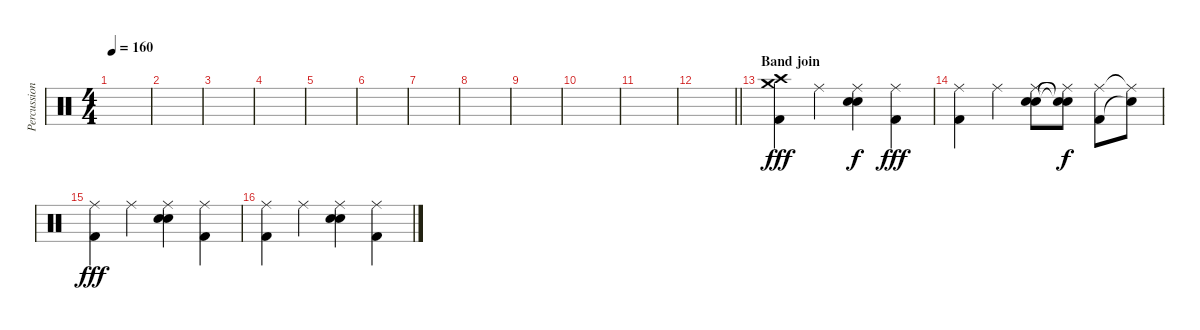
\track ("Percussion" "Percussion") {instrument percussion}
\staff {score}
\articulation defaults
\ts (4 4)
\tempo 160
\clef neutral
\ks c
|
|
|
|
|
|
|
|
|
|
|
\barLineRight lightlight
|
\section ("" "Band join")
("Crash high (hit)" "Kick (hit) 2" "Crash medium (hit)").4{dy fff} "Ride (middle)".4 ("Ride (middle)" "Snare (hit) 2" "Electric Snare (hit)").4{dy f} ("Ride (middle)" "Kick (hit) 2").4{dy fff} |
("Kick (hit) 2" "Ride (middle)").4 "Ride (middle)".4 ("Snare (hit) 2" "Electric Snare (hit)" "Ride (middle)").8 ("Ride (middle)"{t} "Snare (hit)"{t} "Snare (hit)"{t}).8{dy f} ("Ride (middle)" "Kick (hit) 2").8 ("Ride (middle)"{t} "Snare (hit)"{t}).8 |
("Kick (hit) 2" "Ride (middle)").4{dy fff} "Ride (middle)".4 ("Snare (hit) 2" "Electric Snare (hit)" "Ride (middle)").4 ("Kick (hit) 2" "Ride (middle)").4 |
("Kick (hit) 2" "Ride (middle)").4 "Ride (middle)".4 ("Snare (hit) 2" "Electric Snare (hit)" "Ride (middle)").4 ("Kick (hit) 2" "Ride (middle)").4
